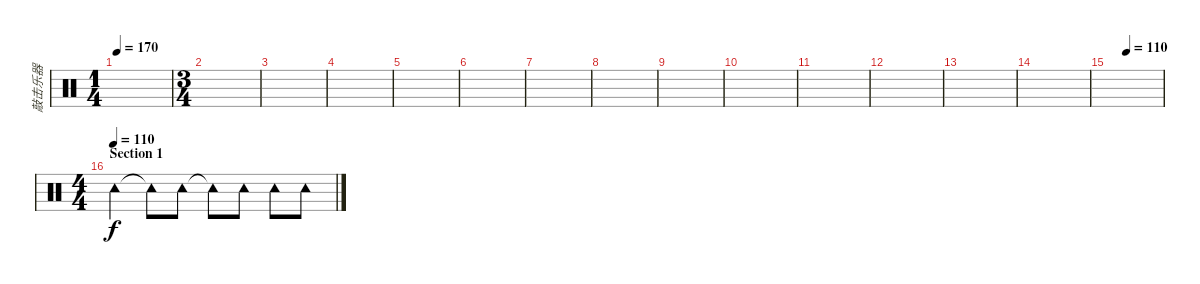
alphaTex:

\track ("敲击乐器" "敲击乐器") {instrument percussion}
\staff {score}
\articulation defaults
\ts (1 4)
\tempo 170
\clef neutral
\ks c
|
\ts (3 4)
|
|
|
|
|
|
|
|
|
|
|
|
|
\tempo (110 0.3333333333333333)
|
\ts (4 4)
\section ("" "Section 1")
\tempo (110)
"Tambourine (hit)".4 "Tambourine (hit)"{t}.8 "Tambourine (hit)".8 "Tambourine (hit)"{t}.8 "Tambourine (hit)".8 "Tambourine (hit)".8 "Tambourine (hit)".8
